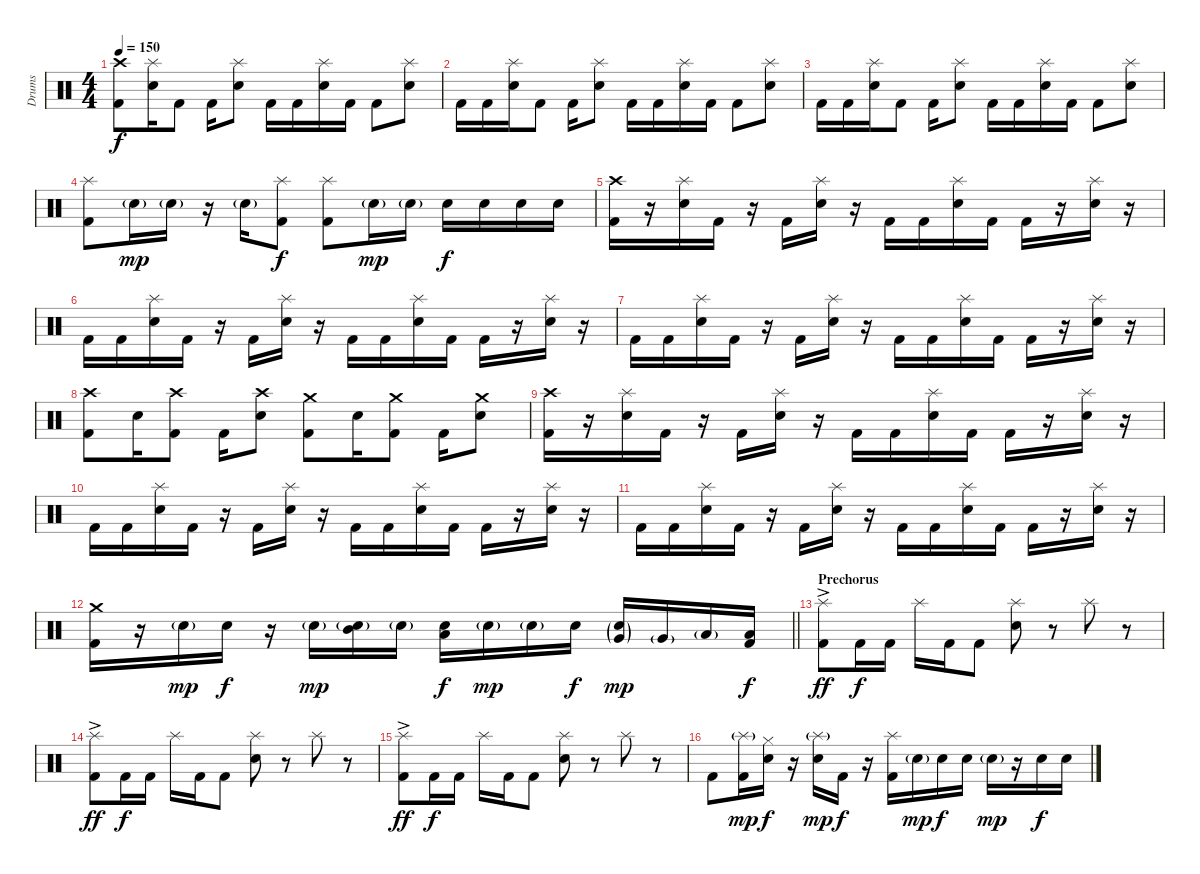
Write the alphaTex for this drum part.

\track ("Drums" "Drums") {instrument percussion}
\staff {score}
\articulation defaults
\ts (4 4)
\tempo 150
\clef neutral
\ks c
("Crash high (hit)" "Kick (hit) 2").8{dy f} ("Splash (hit)" "Electric Snare (hit)").16 "Kick (hit) 2".8 "Kick (hit) 2".16 ("Splash (hit)" "Electric Snare (hit)").8 "Kick (hit) 2".16 "Kick (hit) 2".16 ("Splash (hit)" "Electric Snare (hit)").16 "Kick (hit) 2".16 "Kick (hit) 2".8 ("Splash (hit)" "Electric Snare (hit)").8 |
"Kick (hit) 2".16 "Kick (hit) 2".16 ("Splash (hit)" "Electric Snare (hit)").16 "Kick (hit) 2".8 "Kick (hit) 2".16 ("Splash (hit)" "Electric Snare (hit)").8 "Kick (hit) 2".16 "Kick (hit) 2".16 ("Splash (hit)" "Electric Snare (hit)").16 "Kick (hit) 2".16 "Kick (hit) 2".8 ("Splash (hit)" "Electric Snare (hit)").8 |
"Kick (hit) 2".16 "Kick (hit) 2".16 ("Splash (hit)" "Electric Snare (hit)").16 "Kick (hit) 2".8 "Kick (hit) 2".16 ("Splash (hit)" "Electric Snare (hit)").8 "Kick (hit) 2".16 "Kick (hit) 2".16 ("Splash (hit)" "Electric Snare (hit)").16 "Kick (hit) 2".16 "Kick (hit) 2".8 ("Splash (hit)" "Electric Snare (hit)").8 |
("Splash (hit)" "Kick (hit) 2").8 "Electric Snare (hit)"{g}.16{dy mp} "Electric Snare (hit)"{g}.16 r.16 "Electric Snare (hit)"{g}.16 ("Splash (hit)" "Kick (hit) 2").8{dy f} ("Splash (hit)" "Kick (hit) 2").8 "Electric Snare (hit)"{g}.16{dy mp} "Electric Snare (hit)"{g}.16 "Electric Snare (hit)".16{dy f} "Electric Snare (hit)".16 "Electric Snare (hit)".16 "Electric Snare (hit)".16 |
("Crash high (hit)" "Kick (hit) 2").16 r.16 ("Splash (hit)" "Electric Snare (hit)").16 "Kick (hit) 2".16 r.16 "Kick (hit) 2".16 ("Splash (hit)" "Electric Snare (hit)").16 r.16 "Kick (hit) 2".16 "Kick (hit) 2".16 ("Splash (hit)" "Electric Snare (hit)").16 "Kick (hit) 2".16 "Kick (hit) 2".16 r.16 ("Splash (hit)" "Electric Snare (hit)").16 r.16 |
"Kick (hit) 2".16 "Kick (hit) 2".16 ("Splash (hit)" "Electric Snare (hit)").16 "Kick (hit) 2".16 r.16 "Kick (hit) 2".16 ("Splash (hit)" "Electric Snare (hit)").16 r.16 "Kick (hit) 2".16 "Kick (hit) 2".16 ("Splash (hit)" "Electric Snare (hit)").16 "Kick (hit) 2".16 "Kick (hit) 2".16 r.16 ("Splash (hit)" "Electric Snare (hit)").16 r.16 |
"Kick (hit) 2".16 "Kick (hit) 2".16 ("Splash (hit)" "Electric Snare (hit)").16 "Kick (hit) 2".16 r.16 "Kick (hit) 2".16 ("Splash (hit)" "Electric Snare (hit)").16 r.16 "Kick (hit) 2".16 "Kick (hit) 2".16 ("Splash (hit)" "Electric Snare (hit)").16 "Kick (hit) 2".16 "Kick (hit) 2".16 r.16 ("Splash (hit)" "Electric Snare (hit)").16 r.16 |
("Crash high (hit)" "Kick (hit) 2").8 "Electric Snare (hit)".16 ("Crash high (hit)" "Kick (hit) 2").8 "Kick (hit) 2".16 ("Crash high (hit)" "Electric Snare (hit)").8 ("Crash medium (hit)" "Kick (hit) 2").8 "Electric Snare (hit)".16 ("Crash medium (hit)" "Kick (hit) 2").8 "Kick (hit) 2".16 ("Crash medium (hit)" "Electric Snare (hit)").8 |
("Crash high (hit)" "Kick (hit) 2").16 r.16 ("Splash (hit)" "Electric Snare (hit)").16 "Kick (hit) 2".16 r.16 "Kick (hit) 2".16 ("Splash (hit)" "Electric Snare (hit)").16 r.16 "Kick (hit) 2".16 "Kick (hit) 2".16 ("Splash (hit)" "Electric Snare (hit)").16 "Kick (hit) 2".16 "Kick (hit) 2".16 r.16 ("Splash (hit)" "Electric Snare (hit)").16 r.16 |
"Kick (hit) 2".16 "Kick (hit) 2".16 ("Splash (hit)" "Electric Snare (hit)").16 "Kick (hit) 2".16 r.16 "Kick (hit) 2".16 ("Splash (hit)" "Electric Snare (hit)").16 r.16 "Kick (hit) 2".16 "Kick (hit) 2".16 ("Splash (hit)" "Electric Snare (hit)").16 "Kick (hit) 2".16 "Kick (hit) 2".16 r.16 ("Splash (hit)" "Electric Snare (hit)").16 r.16 |
"Kick (hit) 2".16 "Kick (hit) 2".16 ("Splash (hit)" "Electric Snare (hit)").16 "Kick (hit) 2".16 r.16 "Kick (hit) 2".16 ("Splash (hit)" "Electric Snare (hit)").16 r.16 "Kick (hit) 2".16 "Kick (hit) 2".16 ("Splash (hit)" "Electric Snare (hit)").16 "Kick (hit) 2".16 "Kick (hit) 2".16 r.16 ("Splash (hit)" "Electric Snare (hit)").16 r.16 |
\barLineRight lightlight
("Crash medium (hit)" "Kick (hit) 2").16 r.16 "Electric Snare (hit)"{g}.16{dy mp} "Electric Snare (hit)".16{dy f} r.16 "Electric Snare (hit)"{g}.16{dy mp} ("Mid Tom (hit)" "Electric Snare (hit)"{g}).16 "Electric Snare (hit)"{g}.16 ("Low Tom (hit)" "Electric Snare (hit)").16{dy f} "Electric Snare (hit)"{g}.16{dy mp} "Electric Snare (hit)"{g}.16 "Electric Snare (hit)".16{dy f} ("Very Low Tom (hit)"{g} "Electric Snare (hit)"{g}).16{dy mp} "Very Low Tom (hit)"{g}.16 "Low Floor Tom (hit)"{g}.16 ("Low Floor Tom (hit)" "Kick (hit) 2").16{dy f} |
\section ("" "Prechorus")
("Splash (hit)"{ac} "Kick (hit) 2").8{dy ff} "Kick (hit) 2".16{dy f} "Kick (hit) 2".16 "Splash (hit)".16 "Kick (hit) 2".16 "Kick (hit) 2".8 ("Splash (hit)" "Electric Snare (hit)").8 r.8 "Splash (hit)".8 r.8 |
("Splash (hit)"{ac} "Kick (hit) 2").8{dy ff} "Kick (hit) 2".16{dy f} "Kick (hit) 2".16 "Splash (hit)".16 "Kick (hit) 2".16 "Kick (hit) 2".8 ("Splash (hit)" "Electric Snare (hit)").8 r.8 "Splash (hit)".8 r.8 |
("Splash (hit)"{ac} "Kick (hit) 2").8{dy ff} "Kick (hit) 2".16{dy f} "Kick (hit) 2".16 "Splash (hit)".16 "Kick (hit) 2".16 "Kick (hit) 2".8 ("Splash (hit)" "Electric Snare (hit)").8 r.8 "Splash (hit)".8 r.8 |
"Kick (hit) 2".8 ("Splash (hit)"{g} "Kick (hit) 2").16{dy mp} ("Hi-Hat (closed)" "Electric Snare (hit)").16{dy f} r.16 ("Splash (hit)"{g} "Electric Snare (hit)").16{dy mp} "Kick (hit) 2".16{dy f} r.16 ("Splash (hit)" "Kick (hit) 2").16 "Electric Snare (hit)"{g}.16{dy mp} "Electric Snare (hit)".16{dy f} "Electric Snare (hit)".16 "Electric Snare (hit)"{g}.16{dy mp} r.16 "Electric Snare (hit)".16{dy f} "Electric Snare (hit)".16
